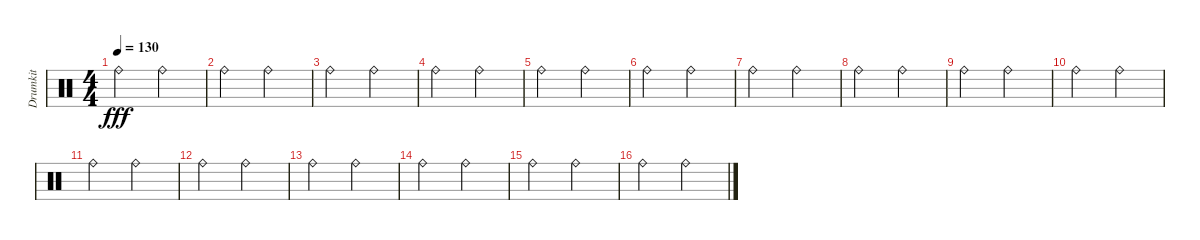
\track ("Drumkit" "Drumkit") {instrument percussion}
\staff {score}
\articulation defaults
\ts (4 4)
\tempo 130
\clef neutral
\ks c "Ride (bell)".2{dy fff} "Ride (bell)".2
|
"Ride (bell)".2 "Ride (bell)".2 |
"Ride (bell)".2 "Ride (bell)".2 |
"Ride (bell)".2 "Ride (bell)".2 |
"Ride (bell)".2 "Ride (bell)".2 |
"Ride (bell)".2 "Ride (bell)".2 |
"Ride (bell)".2 "Ride (bell)".2 |
"Ride (bell)".2 "Ride (bell)".2 |
"Ride (bell)".2 "Ride (bell)".2 |
"Ride (bell)".2 "Ride (bell)".2 |
"Ride (bell)".2 "Ride (bell)".2 |
"Ride (bell)".2 "Ride (bell)".2 |
"Ride (bell)".2 "Ride (bell)".2 |
"Ride (bell)".2 "Ride (bell)".2 |
"Ride (bell)".2 "Ride (bell)".2 |
"Ride (bell)".2 "Ride (bell)".2
